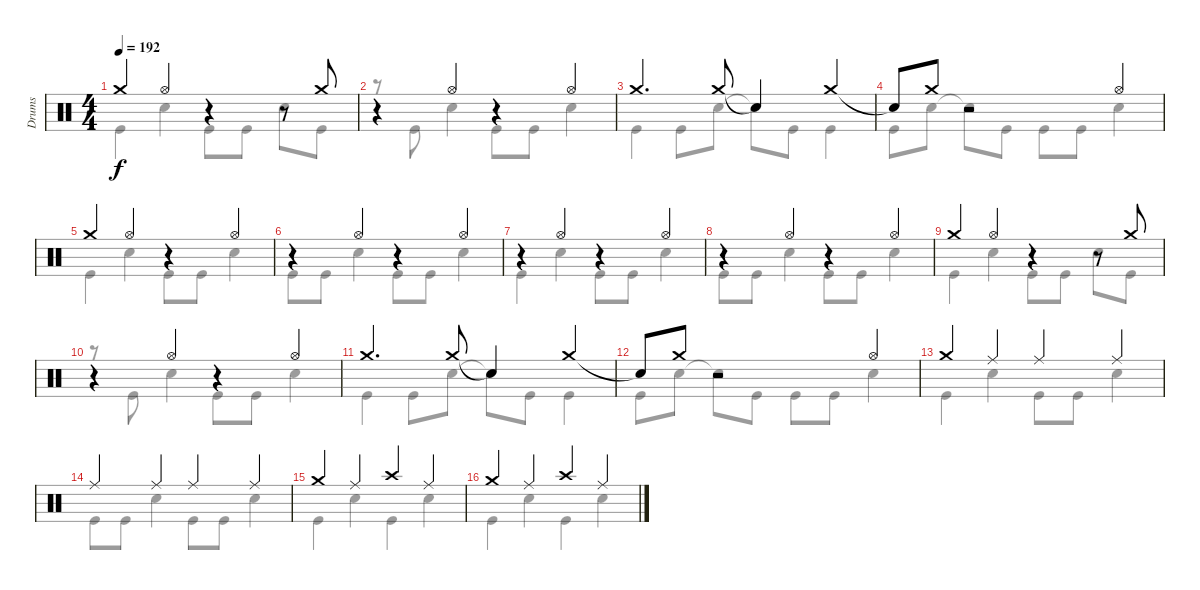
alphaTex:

\track ("Drums" "Drums") {instrument percussion}
\staff {score}
\articulation defaults
\voice
\ts (4 4)
\tempo 192
\clef neutral
\ks c "Crash medium (hit)".4{dy f} "Hi-Hat (open)".4
r.4 r.8 "Crash medium (hit)".8 |
r.4 "Hi-Hat (open)".4 r.4 "Hi-Hat (open)".4 |
"Crash medium (hit)".4{d} "Crash medium (hit)".8 "Snare (hit)"{t}.4 "Crash medium (hit)".4 |
"Snare (hit)"{t}.8 "Crash medium (hit)".8 r.2 "Hi-Hat (open)".4 |
"Crash medium (hit)".4 "Hi-Hat (open)".4 r.4 "Hi-Hat (open)".4 |
r.4 "Hi-Hat (open)".4 r.4 "Hi-Hat (open)".4 |
r.4 "Hi-Hat (open)".4 r.4 "Hi-Hat (open)".4 |
r.4 "Hi-Hat (open)".4 r.4 "Hi-Hat (open)".4 |
"Crash medium (hit)".4 "Hi-Hat (open)".4 r.4 r.8 "Crash medium (hit)".8 |
r.4 "Hi-Hat (open)".4 r.4 "Hi-Hat (open)".4 |
"Crash medium (hit)".4{d} "Crash medium (hit)".8 "Snare (hit)"{t}.4 "Crash medium (hit)".4 |
"Snare (hit)"{t}.8 "Crash medium (hit)".8 r.2 "Hi-Hat (open)".4 |
"Crash medium (hit)".4 "Ride (middle)".4 "Ride (middle)".4 "Ride (middle)".4 |
"Ride (middle)".4 "Ride (middle)".4 "Ride (middle)".4 "Ride (middle)".4 |
"Crash medium (hit)".4 "Ride (middle)".4 "Crash high (hit)".4 "Ride (middle)".4 |
"Crash medium (hit)".4 "Ride (middle)".4 "Crash high (hit)".4 "Ride (middle)".4
\voice
\clef neutral
\ottava regular
\simile none
\ks c "Kick (hit)".4{dy f} "Snare (hit) 2".4 "Kick (hit)".8 "Kick (hit)".8 "Snare (hit) 2".8 "Kick (hit)".8
|
r.8 "Kick (hit)".8 "Snare (hit) 2".4 "Kick (hit)".8 "Kick (hit)".8 "Snare (hit) 2".4 |
"Kick (hit)".4 "Kick (hit)".8 "Snare (hit) 2".8 "Snare (hit)"{t}.8 "Kick (hit)".8 "Kick (hit)".4 |
"Kick (hit)".8 "Snare (hit) 2".8 "Snare (hit)"{t}.8 "Kick (hit)".8 "Kick (hit)".8 "Kick (hit)".8 "Snare (hit) 2".4 |
"Kick (hit)".4 "Snare (hit) 2".4 "Kick (hit)".8 "Kick (hit)".8 "Snare (hit) 2".4 |
"Kick (hit)".8 "Kick (hit)".8 "Snare (hit) 2".4 "Kick (hit)".8 "Kick (hit)".8 "Snare (hit) 2".4 |
"Kick (hit)".4 "Snare (hit) 2".4 "Kick (hit)".8 "Kick (hit)".8 "Snare (hit) 2".4 |
"Kick (hit)".8 "Kick (hit)".8 "Snare (hit) 2".4 "Kick (hit)".8 "Kick (hit)".8 "Snare (hit) 2".4 |
"Kick (hit)".4 "Snare (hit) 2".4 "Kick (hit)".8 "Kick (hit)".8 "Snare (hit) 2".8 "Kick (hit)".8 |
r.8 "Kick (hit)".8 "Snare (hit) 2".4 "Kick (hit)".8 "Kick (hit)".8 "Snare (hit) 2".4 |
"Kick (hit)".4 "Kick (hit)".8 "Snare (hit) 2".8 "Snare (hit)"{t}.8 "Kick (hit)".8 "Kick (hit)".4 |
"Kick (hit)".8 "Snare (hit) 2".8 "Snare (hit)"{t}.8 "Kick (hit)".8 "Kick (hit)".8 "Kick (hit)".8 "Snare (hit) 2".4 |
"Kick (hit)".4 "Snare (hit) 2".4 "Kick (hit)".8 "Kick (hit)".8 "Snare (hit) 2".4 |
"Kick (hit)".8 "Kick (hit)".8 "Snare (hit) 2".4 "Kick (hit)".8 "Kick (hit)".8 "Snare (hit) 2".4 |
"Kick (hit)".4 "Snare (hit) 2".4 "Kick (hit)".4 "Snare (hit) 2".4 |
"Kick (hit)".4 "Snare (hit) 2".4 "Kick (hit)".4 "Snare (hit) 2".4
